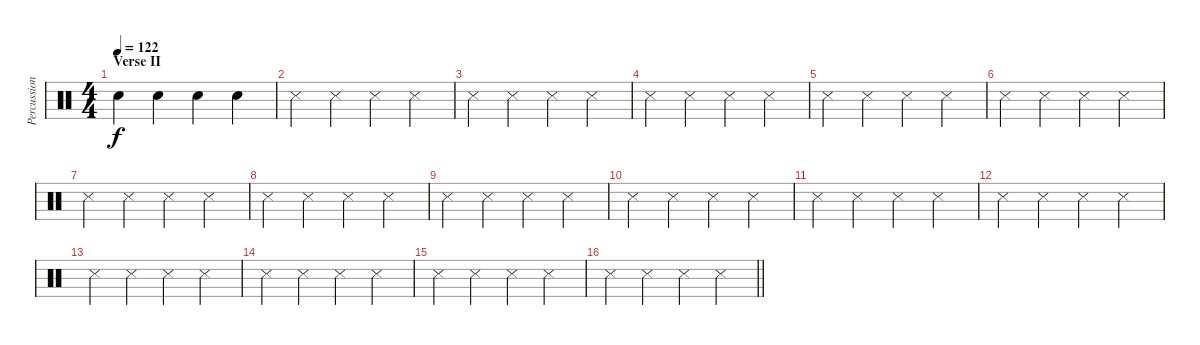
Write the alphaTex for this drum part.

\track ("Percussion" "Percussion") {instrument percussion}
\staff {score}
\articulation defaults
\ts (4 4)
\section ("" "Verse II")
\tempo 122
\clef neutral
\ks c "Snare (hit) 2".4{dy f} "Snare (hit) 2".4 "Snare (hit) 2".4 "Snare (hit) 2".4
|
"Snare (side stick) 3".4 "Metronome (hit)".4 "Metronome (hit)".4 "Metronome (hit)".4 |
"Snare (side stick) 3".4 "Metronome (hit)".4 "Metronome (hit)".4 "Metronome (hit)".4 |
"Snare (side stick) 3".4 "Metronome (hit)".4 "Metronome (hit)".4 "Metronome (hit)".4 |
"Snare (side stick) 3".4 "Metronome (hit)".4 "Metronome (hit)".4 "Metronome (hit)".4 |
"Snare (side stick) 3".4 "Metronome (hit)".4 "Metronome (hit)".4 "Metronome (hit)".4 |
"Snare (side stick) 3".4 "Metronome (hit)".4 "Metronome (hit)".4 "Metronome (hit)".4 |
"Snare (side stick) 3".4 "Metronome (hit)".4 "Metronome (hit)".4 "Metronome (hit)".4 |
"Snare (side stick) 3".4 "Metronome (hit)".4 "Metronome (hit)".4 "Metronome (hit)".4 |
"Snare (side stick) 3".4 "Metronome (hit)".4 "Metronome (hit)".4 "Metronome (hit)".4 |
"Snare (side stick) 3".4 "Metronome (hit)".4 "Metronome (hit)".4 "Metronome (hit)".4 |
"Snare (side stick) 3".4 "Metronome (hit)".4 "Metronome (hit)".4 "Metronome (hit)".4 |
"Snare (side stick) 3".4 "Metronome (hit)".4 "Metronome (hit)".4 "Metronome (hit)".4 |
"Snare (side stick) 3".4 "Metronome (hit)".4 "Metronome (hit)".4 "Metronome (hit)".4 |
"Snare (side stick) 3".4 "Metronome (hit)".4 "Metronome (hit)".4 "Metronome (hit)".4 |
\barLineRight lightlight "Snare (side stick) 3".4 "Metronome (hit)".4 "Metronome (hit)".4 "Metronome (hit)".4
